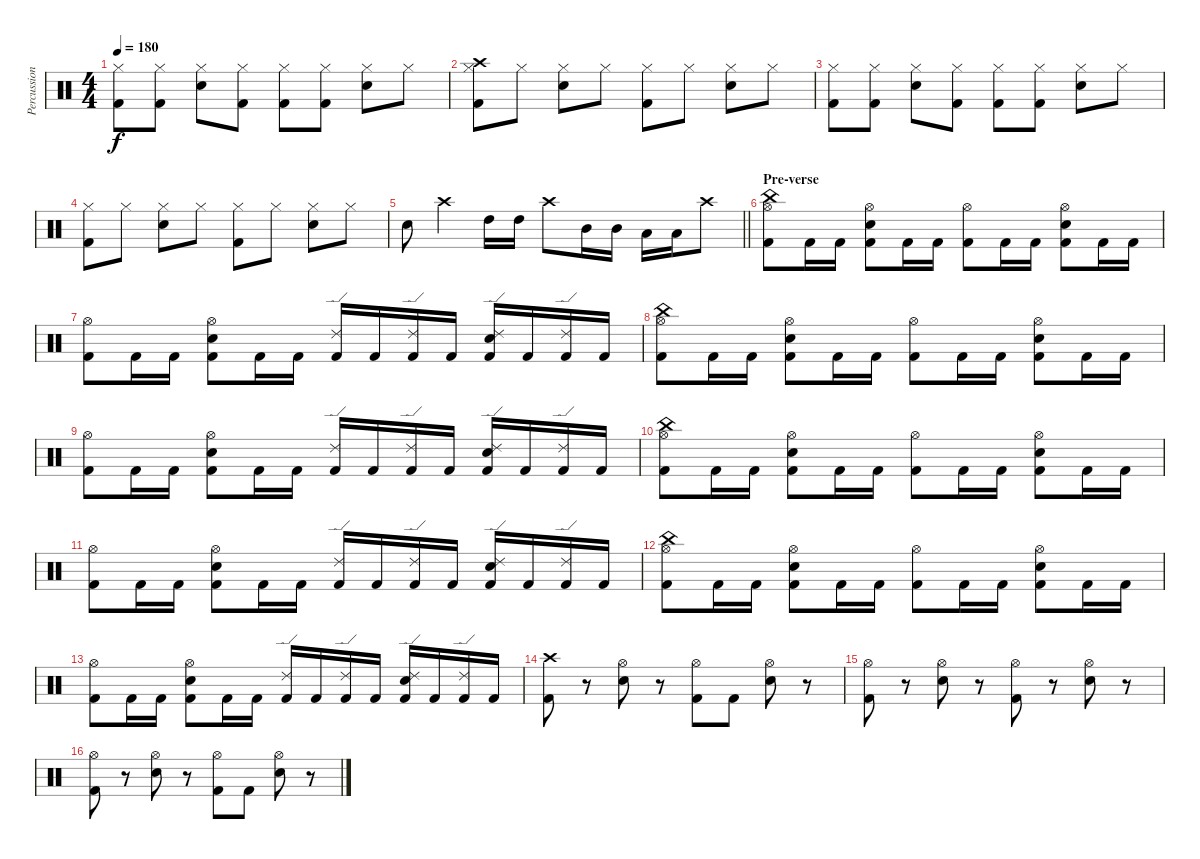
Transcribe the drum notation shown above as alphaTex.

\track ("Percussion" "Percussion") {instrument percussion}
\staff {score}
\articulation defaults
\ts (4 4)
\tempo 180
\clef neutral
\ks c
("Hi-Hat (closed)" "Kick (hit) 2").8{dy f} ("Hi-Hat (closed)" "Kick (hit) 2").8 ("Hi-Hat (closed)" "Snare (hit) 2").8 ("Hi-Hat (closed)" "Kick (hit) 2").8 ("Hi-Hat (closed)" "Kick (hit) 2").8 ("Hi-Hat (closed)" "Kick (hit) 2").8 ("Hi-Hat (closed)" "Snare (hit) 2").8 "Hi-Hat (closed)".8 |
("Crash high (hit)" "Hi-Hat (closed)" "Kick (hit) 2").8 "Hi-Hat (closed)".8 ("Hi-Hat (closed)" "Snare (hit) 2").8 "Hi-Hat (closed)".8 ("Hi-Hat (closed)" "Kick (hit) 2").8 "Hi-Hat (closed)".8 ("Hi-Hat (closed)" "Snare (hit) 2").8 "Hi-Hat (closed)".8 |
("Hi-Hat (closed)" "Kick (hit) 2").8 ("Hi-Hat (closed)" "Kick (hit) 2").8 ("Hi-Hat (closed)" "Snare (hit) 2").8 ("Hi-Hat (closed)" "Kick (hit) 2").8 ("Hi-Hat (closed)" "Kick (hit) 2").8 ("Hi-Hat (closed)" "Kick (hit) 2").8 ("Hi-Hat (closed)" "Snare (hit) 2").8 "Hi-Hat (closed)".8 |
("Hi-Hat (closed)" "Kick (hit) 2").8 "Hi-Hat (closed)".8 ("Hi-Hat (closed)" "Snare (hit) 2").8 "Hi-Hat (closed)".8 ("Hi-Hat (closed)" "Kick (hit) 2").8 "Hi-Hat (closed)".8 ("Hi-Hat (closed)" "Snare (hit) 2").8 "Hi-Hat (closed)".8 |
\barLineRight lightlight "Snare (hit) 2".8 "Crash high (hit)".4 "High Tom (hit)".16 "High Tom (hit)".16 "Crash high (hit)".8 "Mid Tom (hit)".16 "Mid Tom (hit)".16 "Low Tom (hit)".16 "Low Tom (hit)".16 "Crash high (hit)".8
|
\section ("" "Pre-verse")
("China (hit)" "Hi-Hat (open)" "Kick (hit) 2").8 "Kick (hit) 2".16 "Kick (hit) 2".16 ("Hi-Hat (open)" "Snare (hit) 2" "Kick (hit) 2").8 "Kick (hit) 2".16 "Kick (hit) 2".16 ("Hi-Hat (open)" "Kick (hit) 2").8 "Kick (hit) 2".16 "Kick (hit) 2".16 ("Hi-Hat (open)" "Snare (hit) 2" "Kick (hit) 2").8 "Kick (hit) 2".16 "Kick (hit) 2".16 |
("Hi-Hat (open)" "Kick (hit) 2").8 "Kick (hit) 2".16 "Kick (hit) 2".16 ("Hi-Hat (open)" "Snare (hit) 2" "Kick (hit) 2").8 "Kick (hit) 2".16 "Kick (hit) 2".16 ("Ride (edge) 2" "Kick (hit) 2").16 "Kick (hit) 2".16 ("Ride (edge) 2" "Kick (hit) 2").16 "Kick (hit) 2".16 ("Ride (edge) 2" "Snare (hit) 2" "Kick (hit) 2").16 "Kick (hit) 2".16 ("Ride (edge) 2" "Kick (hit) 2").16 "Kick (hit) 2".16 |
("China (hit)" "Hi-Hat (open)" "Kick (hit) 2").8 "Kick (hit) 2".16 "Kick (hit) 2".16 ("Hi-Hat (open)" "Snare (hit) 2" "Kick (hit) 2").8 "Kick (hit) 2".16 "Kick (hit) 2".16 ("Hi-Hat (open)" "Kick (hit) 2").8 "Kick (hit) 2".16 "Kick (hit) 2".16 ("Hi-Hat (open)" "Snare (hit) 2" "Kick (hit) 2").8 "Kick (hit) 2".16 "Kick (hit) 2".16 |
("Hi-Hat (open)" "Kick (hit) 2").8 "Kick (hit) 2".16 "Kick (hit) 2".16 ("Hi-Hat (open)" "Snare (hit) 2" "Kick (hit) 2").8 "Kick (hit) 2".16 "Kick (hit) 2".16 ("Ride (edge) 2" "Kick (hit) 2").16 "Kick (hit) 2".16 ("Ride (edge) 2" "Kick (hit) 2").16 "Kick (hit) 2".16 ("Ride (edge) 2" "Snare (hit) 2" "Kick (hit) 2").16 "Kick (hit) 2".16 ("Ride (edge) 2" "Kick (hit) 2").16 "Kick (hit) 2".16 |
("China (hit)" "Hi-Hat (open)" "Kick (hit) 2").8 "Kick (hit) 2".16 "Kick (hit) 2".16 ("Hi-Hat (open)" "Snare (hit) 2" "Kick (hit) 2").8 "Kick (hit) 2".16 "Kick (hit) 2".16 ("Hi-Hat (open)" "Kick (hit) 2").8 "Kick (hit) 2".16 "Kick (hit) 2".16 ("Hi-Hat (open)" "Snare (hit) 2" "Kick (hit) 2").8 "Kick (hit) 2".16 "Kick (hit) 2".16 |
("Hi-Hat (open)" "Kick (hit) 2").8 "Kick (hit) 2".16 "Kick (hit) 2".16 ("Hi-Hat (open)" "Snare (hit) 2" "Kick (hit) 2").8 "Kick (hit) 2".16 "Kick (hit) 2".16 ("Ride (edge) 2" "Kick (hit) 2").16 "Kick (hit) 2".16 ("Ride (edge) 2" "Kick (hit) 2").16 "Kick (hit) 2".16 ("Ride (edge) 2" "Snare (hit) 2" "Kick (hit) 2").16 "Kick (hit) 2".16 ("Ride (edge) 2" "Kick (hit) 2").16 "Kick (hit) 2".16 |
("China (hit)" "Hi-Hat (open)" "Kick (hit) 2").8 "Kick (hit) 2".16 "Kick (hit) 2".16 ("Hi-Hat (open)" "Snare (hit) 2" "Kick (hit) 2").8 "Kick (hit) 2".16 "Kick (hit) 2".16 ("Hi-Hat (open)" "Kick (hit) 2").8 "Kick (hit) 2".16 "Kick (hit) 2".16 ("Hi-Hat (open)" "Snare (hit) 2" "Kick (hit) 2").8 "Kick (hit) 2".16 "Kick (hit) 2".16 |
("Hi-Hat (open)" "Kick (hit) 2").8 "Kick (hit) 2".16 "Kick (hit) 2".16 ("Hi-Hat (open)" "Snare (hit) 2" "Kick (hit) 2").8 "Kick (hit) 2".16 "Kick (hit) 2".16 ("Ride (edge) 2" "Kick (hit) 2").16 "Kick (hit) 2".16 ("Ride (edge) 2" "Kick (hit) 2").16 "Kick (hit) 2".16 ("Ride (edge) 2" "Snare (hit) 2" "Kick (hit) 2").16 "Kick (hit) 2".16 ("Ride (edge) 2" "Kick (hit) 2").16 "Kick (hit) 2".16 |
("Crash high (hit)" "Kick (hit) 2").8 r.8 ("Hi-Hat (open)" "Snare (hit) 2").8 r.8 ("Hi-Hat (open)" "Kick (hit) 2").8 "Kick (hit) 2".8 ("Hi-Hat (open)" "Snare (hit) 2").8 r.8 |
("Hi-Hat (open)" "Kick (hit) 2").8 r.8 ("Hi-Hat (open)" "Snare (hit) 2").8 r.8 ("Hi-Hat (open)" "Kick (hit) 2").8 r.8 ("Hi-Hat (open)" "Snare (hit) 2").8 r.8 |
("Hi-Hat (open)" "Kick (hit) 2").8 r.8 ("Hi-Hat (open)" "Snare (hit) 2").8 r.8 ("Hi-Hat (open)" "Kick (hit) 2").8 "Kick (hit) 2".8 ("Hi-Hat (open)" "Snare (hit) 2").8 r.8
